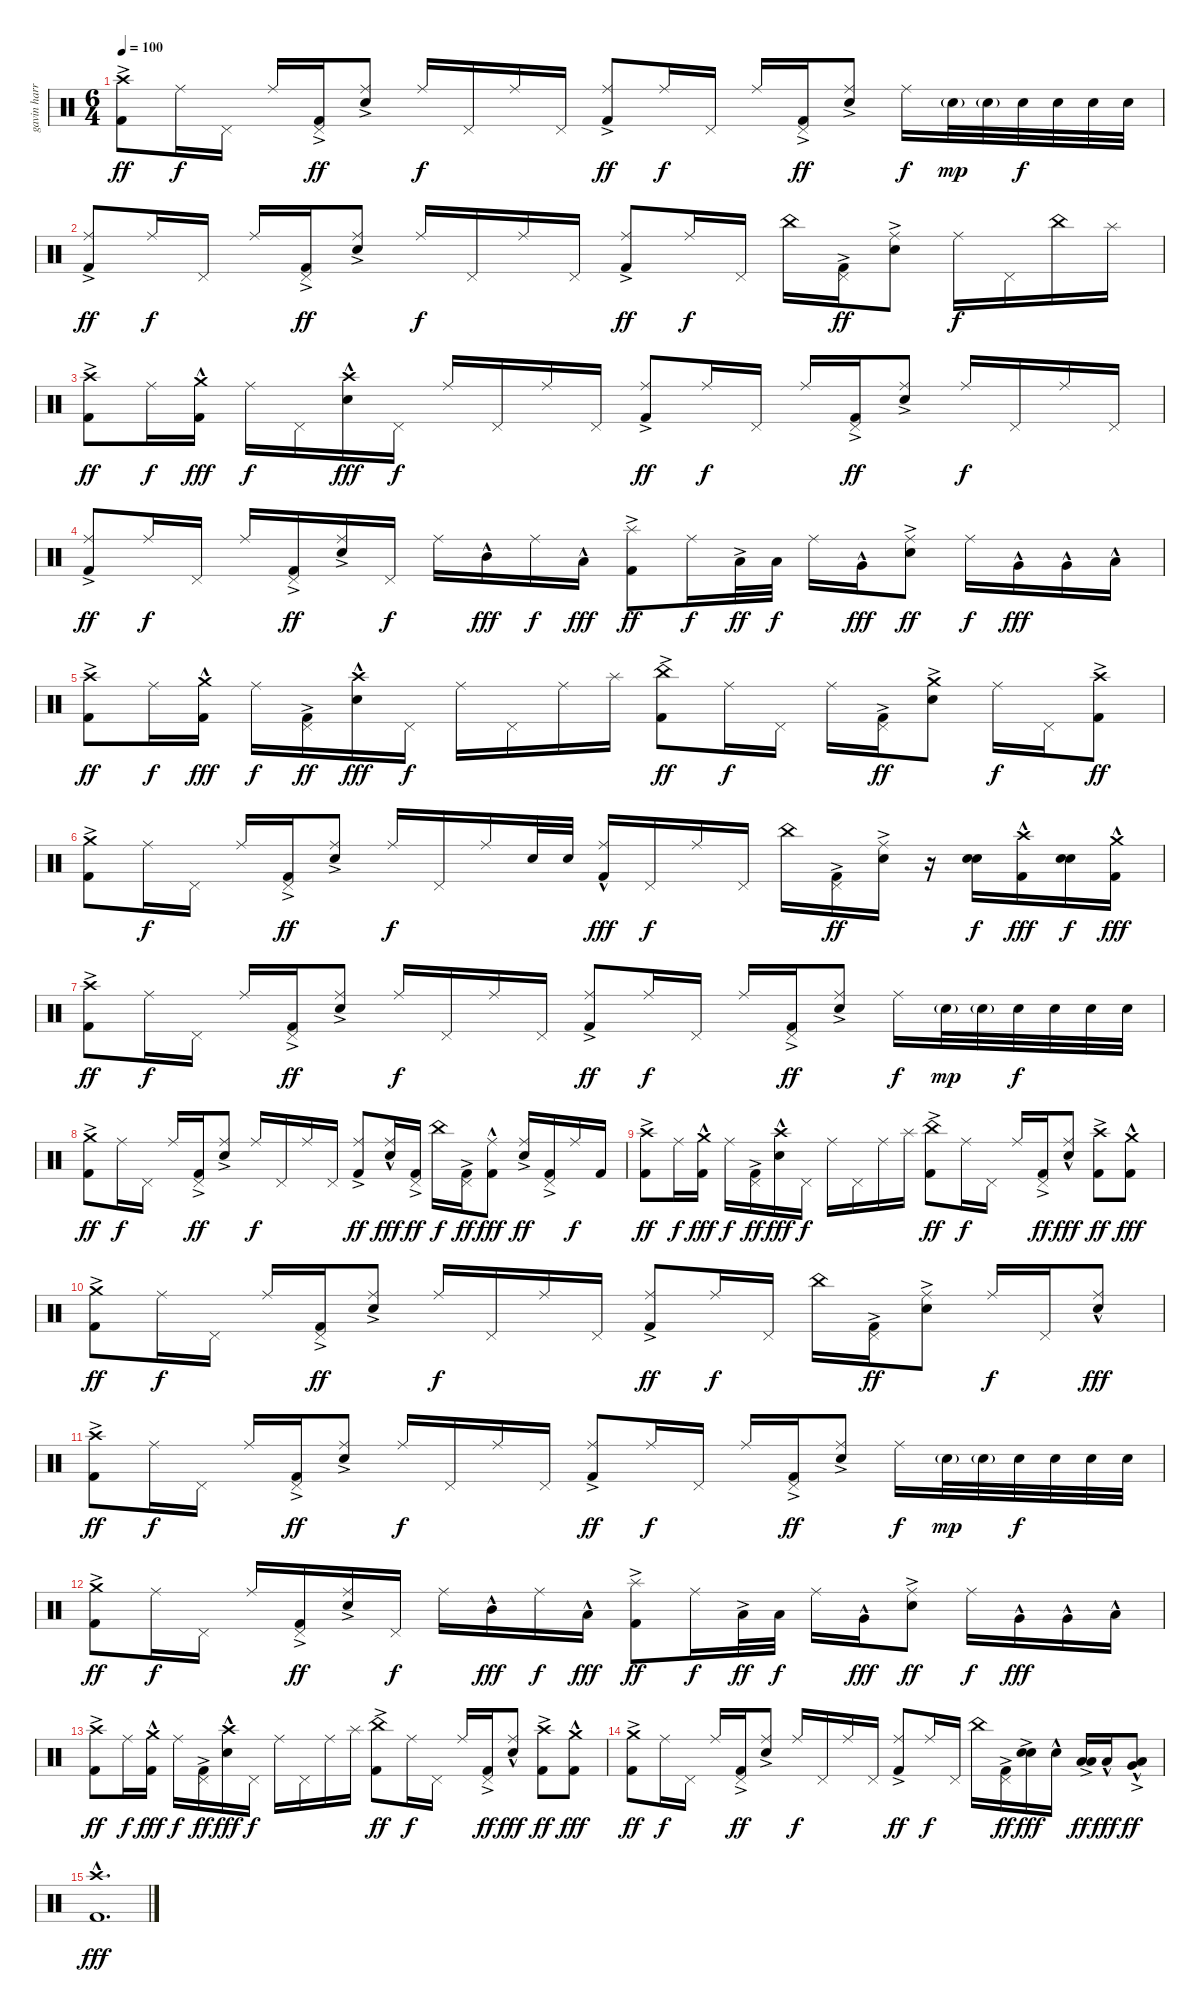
\track ("gavin harrison" "gavin harr") {instrument percussion}
\staff {score}
\articulation defaults
\ts (6 4)
\tempo 100
\clef neutral
\ks c
("Crash high (hit)" "Kick (hit) 2"{ac}).8{dy ff} "Ride (middle)".16{dy f} "Pedal Hi-Hat (hit)".16 "Ride (middle)".16 ("Pedal Hi-Hat (hit)" "Kick (hit) 2"{ac}).16{dy ff} ("Ride (middle)" "Electric Snare (hit)"{ac}).8 "Ride (middle)".16{dy f} "Pedal Hi-Hat (hit)".16 "Ride (middle)".16 "Pedal Hi-Hat (hit)".16 ("Ride (middle)" "Kick (hit) 2"{ac}).8{dy ff} "Ride (middle)".16{dy f} "Pedal Hi-Hat (hit)".16 "Ride (middle)".16 ("Pedal Hi-Hat (hit)" "Kick (hit) 2"{ac}).16{dy ff} ("Ride (middle)" "Electric Snare (hit)"{ac}).8 "Ride (middle)".16{dy f} "Electric Snare (hit)"{g}.32{dy mp} "Electric Snare (hit)"{g}.32 "Electric Snare (hit)".32{dy f} "Electric Snare (hit)".32 "Electric Snare (hit)".32 "Electric Snare (hit)".32 |
("Ride (middle)" "Kick (hit) 2"{ac}).8{dy ff} "Ride (middle)".16{dy f} "Pedal Hi-Hat (hit)".16 "Ride (middle)".16 ("Pedal Hi-Hat (hit)" "Kick (hit) 2"{ac}).16{dy ff} ("Ride (middle)" "Electric Snare (hit)"{ac}).8 "Ride (middle)".16{dy f} "Pedal Hi-Hat (hit)".16 "Ride (middle)".16 "Pedal Hi-Hat (hit)".16 ("Ride (middle)" "Kick (hit) 2"{ac}).8{dy ff} "Ride (middle)".16{dy f} "Pedal Hi-Hat (hit)".16 "China (hit)".16 ("Pedal Hi-Hat (hit)" "Kick (hit) 2"{ac}).16{dy ff} ("Ride (middle)" "Electric Snare (hit)"{ac}).8 "Ride (middle)".16{dy f} "Pedal Hi-Hat (hit)".16 "China (hit)".16 "Splash (hit)".16 |
("Crash high (hit)" "Kick (hit) 2"{ac}).8{dy ff} "Ride (middle)".16{dy f} ("Crash medium (hit)" "Kick (hit) 2"{hac}).16{dy fff} "Ride (middle)".16{dy f} "Pedal Hi-Hat (hit)".16 ("Crash high (hit)" "Electric Snare (hit)"{hac}).16{dy fff} "Pedal Hi-Hat (hit)".16{dy f} "Ride (middle)".16 "Pedal Hi-Hat (hit)".16 "Ride (middle)".16 "Pedal Hi-Hat (hit)".16 ("Ride (middle)" "Kick (hit) 2"{ac}).8{dy ff} "Ride (middle)".16{dy f} "Pedal Hi-Hat (hit)".16 "Ride (middle)".16 ("Pedal Hi-Hat (hit)" "Kick (hit) 2"{ac}).16{dy ff} ("Ride (middle)" "Electric Snare (hit)"{ac}).8 "Ride (middle)".16{dy f} "Pedal Hi-Hat (hit)".16 "Ride (middle)".16 "Pedal Hi-Hat (hit)".16 |
("Ride (middle)" "Kick (hit) 2"{ac}).8{dy ff} "Ride (middle)".16{dy f} "Pedal Hi-Hat (hit)".16 "Ride (middle)".16 ("Pedal Hi-Hat (hit)" "Kick (hit) 2"{ac}).16{dy ff} ("Ride (middle)" "Electric Snare (hit)"{ac}).16 "Pedal Hi-Hat (hit)".16{dy f} "Ride (middle)".16 "Mid Tom (hit)"{hac}.16{dy fff} "Ride (middle)".16{dy f} "Low Tom (hit)"{hac}.16{dy fff} ("Splash (hit)" "Kick (hit) 2"{ac}).8{dy ff} "Ride (middle)".16{dy f} "Low Tom (hit)"{ac}.32{dy ff} "Low Tom (hit)".32{dy f} "Ride (middle)".16 "Very Low Tom (hit)"{hac}.16{dy fff} ("Ride (middle)" "Electric Snare (hit)"{ac}).8{dy ff} "Ride (middle)".16{dy f} "Very Low Tom (hit)"{hac}.16{dy fff} "Very Low Tom (hit)"{hac}.16 "Low Floor Tom (hit)"{hac}.16 |
("Crash high (hit)" "Kick (hit) 2"{ac}).8{dy ff} "Ride (middle)".16{dy f} ("Crash medium (hit)" "Kick (hit) 2"{hac}).16{dy fff} "Ride (middle)".16{dy f} ("Pedal Hi-Hat (hit)" "Kick (hit) 2"{ac}).16{dy ff} ("Crash high (hit)" "Electric Snare (hit)"{hac}).16{dy fff} "Pedal Hi-Hat (hit)".16{dy f} "Ride (middle)".16 "Pedal Hi-Hat (hit)".16 "Ride (middle)".16 "Splash (hit)".16 ("China (hit)" "Kick (hit) 2"{ac}).8{dy ff} "Ride (middle)".16{dy f} "Pedal Hi-Hat (hit)".16 "Ride (middle)".16 ("Pedal Hi-Hat (hit)" "Kick (hit) 2"{ac}).16{dy ff} ("Crash medium (hit)" "Electric Snare (hit)"{ac}).8 "Ride (middle)".16{dy f} "Pedal Hi-Hat (hit)".16 ("Crash high (hit)" "Kick (hit) 2"{ac}).8{dy ff} |
("Crash medium (hit)" "Kick (hit) 2"{ac}).8 "Ride (middle)".16{dy f} "Pedal Hi-Hat (hit)".16 "Ride (middle)".16 ("Pedal Hi-Hat (hit)" "Kick (hit) 2"{ac}).16{dy ff} ("Ride (middle)" "Electric Snare (hit)"{ac}).8 "Ride (middle)".16{dy f} "Pedal Hi-Hat (hit)".16 "Ride (middle)".16 "Electric Snare (hit)".32 "Electric Snare (hit)".32 ("Ride (middle)" "Kick (hit) 2"{hac}).16{dy fff} "Pedal Hi-Hat (hit)".16{dy f} "Ride (middle)".16 "Pedal Hi-Hat (hit)".16 "China (hit)".16 ("Pedal Hi-Hat (hit)" "Kick (hit) 2"{ac}).16{dy ff} ("Ride (middle)" "Electric Snare (hit)"{ac}).16 r.16 ("Electric Snare (hit)" "Electric Snare (hit)").16{dy f} ("Crash high (hit)" "Kick (hit) 2"{hac}).16{dy fff} ("Electric Snare (hit)" "Electric Snare (hit)").16{dy f} ("Crash medium (hit)" "Kick (hit) 2"{hac}).16{dy fff} |
("Crash high (hit)" "Kick (hit) 2"{ac}).8{dy ff} "Ride (middle)".16{dy f} "Pedal Hi-Hat (hit)".16 "Ride (middle)".16 ("Pedal Hi-Hat (hit)" "Kick (hit) 2"{ac}).16{dy ff} ("Ride (middle)" "Electric Snare (hit)"{ac}).8 "Ride (middle)".16{dy f} "Pedal Hi-Hat (hit)".16 "Ride (middle)".16 "Pedal Hi-Hat (hit)".16 ("Ride (middle)" "Kick (hit) 2"{ac}).8{dy ff} "Ride (middle)".16{dy f} "Pedal Hi-Hat (hit)".16 "Ride (middle)".16 ("Pedal Hi-Hat (hit)" "Kick (hit) 2"{ac}).16{dy ff} ("Ride (middle)" "Electric Snare (hit)"{ac}).8 "Ride (middle)".16{dy f} "Electric Snare (hit)"{g}.32{dy mp} "Electric Snare (hit)"{g}.32 "Electric Snare (hit)".32{dy f} "Electric Snare (hit)".32 "Electric Snare (hit)".32 "Electric Snare (hit)".32 |
("Crash medium (hit)" "Kick (hit) 2"{ac}).8{dy ff} "Ride (middle)".16{dy f} "Pedal Hi-Hat (hit)".16 "Ride (middle)".16 ("Pedal Hi-Hat (hit)" "Kick (hit) 2"{ac}).16{dy ff} ("Ride (middle)" "Electric Snare (hit)"{ac}).8 "Ride (middle)".16{dy f} "Pedal Hi-Hat (hit)".16 "Ride (middle)".16 "Pedal Hi-Hat (hit)".16 ("Ride (middle)" "Kick (hit) 2"{ac}).8{dy ff} ("Ride (middle)" "Electric Snare (hit)"{hac}).16{dy fff} ("Pedal Hi-Hat (hit)" "Kick (hit) 2"{ac}).16{dy ff} "China (hit)".16{dy f} ("Pedal Hi-Hat (hit)" "Kick (hit) 2"{ac}).16{dy ff} ("Ride (middle)" "Kick (hit) 2"{hac}).8{dy fff} ("Ride (middle)" "Electric Snare (hit)"{ac}).16{dy ff} ("Pedal Hi-Hat (hit)" "Kick (hit) 2"{ac}).16 "Ride (middle)".16{dy f} "Kick (hit) 2".16 |
("Crash high (hit)" "Kick (hit) 2"{ac}).8{dy ff} "Ride (middle)".16{dy f} ("Crash medium (hit)" "Kick (hit) 2"{hac}).16{dy fff} "Ride (middle)".16{dy f} ("Pedal Hi-Hat (hit)" "Kick (hit) 2"{ac}).16{dy ff} ("Crash high (hit)" "Electric Snare (hit)"{hac}).16{dy fff} "Pedal Hi-Hat (hit)".16{dy f} "Ride (middle)".16 "Pedal Hi-Hat (hit)".16 "Ride (middle)".16 "Splash (hit)".16 ("China (hit)" "Kick (hit) 2"{ac}).8{dy ff} "Ride (middle)".16{dy f} "Pedal Hi-Hat (hit)".16 "Ride (middle)".16 ("Pedal Hi-Hat (hit)" "Kick (hit) 2"{ac}).16{dy ff} ("Ride (middle)" "Electric Snare (hit)"{hac}).8{dy fff} ("Crash high (hit)" "Kick (hit) 2"{ac}).8{dy ff} ("Crash medium (hit)" "Kick (hit) 2"{hac}).8{dy fff} |
("Crash medium (hit)" "Kick (hit) 2"{ac}).8{dy ff} "Ride (middle)".16{dy f} "Pedal Hi-Hat (hit)".16 "Ride (middle)".16 ("Pedal Hi-Hat (hit)" "Kick (hit) 2"{ac}).16{dy ff} ("Ride (middle)" "Electric Snare (hit)"{ac}).8 "Ride (middle)".16{dy f} "Pedal Hi-Hat (hit)".16 "Ride (middle)".16 "Pedal Hi-Hat (hit)".16 ("Ride (middle)" "Kick (hit) 2"{ac}).8{dy ff} "Ride (middle)".16{dy f} "Pedal Hi-Hat (hit)".16 "China (hit)".16 ("Pedal Hi-Hat (hit)" "Kick (hit) 2"{ac}).16{dy ff} ("Ride (middle)" "Electric Snare (hit)"{ac}).8 "Ride (middle)".16{dy f} "Pedal Hi-Hat (hit)".16 ("Ride (middle)" "Electric Snare (hit)"{hac}).8{dy fff} |
("Crash high (hit)" "Kick (hit) 2"{ac}).8{dy ff} "Ride (middle)".16{dy f} "Pedal Hi-Hat (hit)".16 "Ride (middle)".16 ("Pedal Hi-Hat (hit)" "Kick (hit) 2"{ac}).16{dy ff} ("Ride (middle)" "Electric Snare (hit)"{ac}).8 "Ride (middle)".16{dy f} "Pedal Hi-Hat (hit)".16 "Ride (middle)".16 "Pedal Hi-Hat (hit)".16 ("Ride (middle)" "Kick (hit) 2"{ac}).8{dy ff} "Ride (middle)".16{dy f} "Pedal Hi-Hat (hit)".16 "Ride (middle)".16 ("Pedal Hi-Hat (hit)" "Kick (hit) 2"{ac}).16{dy ff} ("Ride (middle)" "Electric Snare (hit)"{ac}).8 "Ride (middle)".16{dy f} "Electric Snare (hit)"{g}.32{dy mp} "Electric Snare (hit)"{g}.32 "Electric Snare (hit)".32{dy f} "Electric Snare (hit)".32 "Electric Snare (hit)".32 "Electric Snare (hit)".32 |
("Crash medium (hit)" "Kick (hit) 2"{ac}).8{dy ff} "Ride (middle)".16{dy f} "Pedal Hi-Hat (hit)".16 "Ride (middle)".16 ("Pedal Hi-Hat (hit)" "Kick (hit) 2"{ac}).16{dy ff} ("Ride (middle)" "Electric Snare (hit)"{ac}).16 "Pedal Hi-Hat (hit)".16{dy f} "Ride (middle)".16 "Mid Tom (hit)"{hac}.16{dy fff} "Ride (middle)".16{dy f} "Low Tom (hit)"{hac}.16{dy fff} ("Splash (hit)" "Kick (hit) 2"{ac}).8{dy ff} "Ride (middle)".16{dy f} "Low Tom (hit)"{ac}.32{dy ff} "Low Tom (hit)".32{dy f} "Ride (middle)".16 "Very Low Tom (hit)"{hac}.16{dy fff} ("Ride (middle)" "Electric Snare (hit)"{ac}).8{dy ff} "Ride (middle)".16{dy f} "Very Low Tom (hit)"{hac}.16{dy fff} "Very Low Tom (hit)"{hac}.16 "Low Floor Tom (hit)"{hac}.16 |
("Crash high (hit)" "Kick (hit) 2"{ac}).8{dy ff} "Ride (middle)".16{dy f} ("Crash medium (hit)" "Kick (hit) 2"{hac}).16{dy fff} "Ride (middle)".16{dy f} ("Pedal Hi-Hat (hit)" "Kick (hit) 2"{ac}).16{dy ff} ("Crash high (hit)" "Electric Snare (hit)"{hac}).16{dy fff} "Pedal Hi-Hat (hit)".16{dy f} "Ride (middle)".16 "Pedal Hi-Hat (hit)".16 "Ride (middle)".16 "Splash (hit)".16 ("China (hit)" "Kick (hit) 2"{ac}).8{dy ff} "Ride (middle)".16{dy f} "Pedal Hi-Hat (hit)".16 "Ride (middle)".16 ("Pedal Hi-Hat (hit)" "Kick (hit) 2"{ac}).16{dy ff} ("Ride (middle)" "Electric Snare (hit)"{hac}).8{dy fff} ("Crash high (hit)" "Kick (hit) 2"{ac}).8{dy ff} ("Crash medium (hit)" "Kick (hit) 2"{hac}).8{dy fff} |
("Crash medium (hit)" "Kick (hit) 2"{ac}).8{dy ff} "Ride (middle)".16{dy f} "Pedal Hi-Hat (hit)".16 "Ride (middle)".16 ("Pedal Hi-Hat (hit)" "Kick (hit) 2"{ac}).16{dy ff} ("Ride (middle)" "Electric Snare (hit)"{ac}).8 "Ride (middle)".16{dy f} "Pedal Hi-Hat (hit)".16 "Ride (middle)".16 "Pedal Hi-Hat (hit)".16 ("Ride (middle)" "Kick (hit) 2"{ac}).8{dy ff} "Ride (middle)".16{dy f} "Pedal Hi-Hat (hit)".16 "China (hit)".16 ("Pedal Hi-Hat (hit)" "Kick (hit) 2"{ac}).16{dy ff} ("Electric Snare (hit)"{ac} "Electric Snare (hit)"{ac}).16{dy fff} "Electric Snare (hit)"{hac}.16 ("Low Tom (hit)"{ac} "Low Tom (hit)"{ac}).16{dy ff} "Low Tom (hit)"{hac}.16{dy fff} ("Low Floor Tom (hit)"{hac} "Very Low Tom (hit)"{ac}).8{dy ff} |
("Crash high (hit)" "Kick (hit) 2"{hac}).1{d dy fff}
